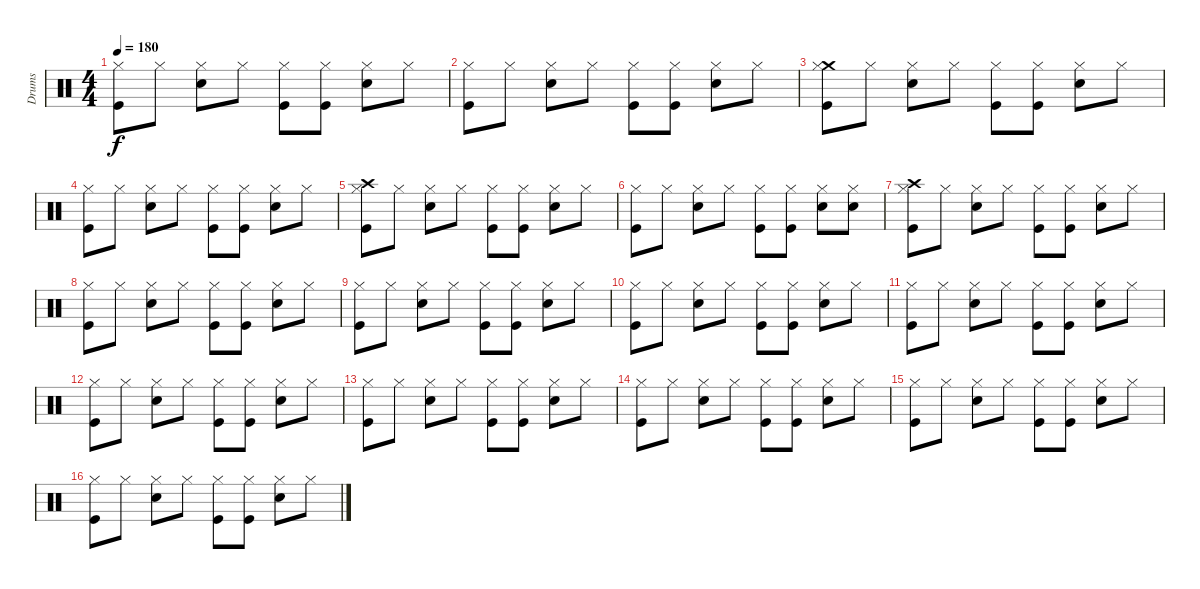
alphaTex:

\track ("Drums" "Drums") {instrument percussion}
\staff {score}
\articulation defaults
\ts (4 4)
\tempo 180
\clef neutral
\ks c
("Hi-Hat (closed)" "Kick (hit)").8{dy f} "Hi-Hat (closed)".8 ("Hi-Hat (closed)" "Electric Snare (hit)").8 "Hi-Hat (closed)".8 ("Kick (hit)" "Hi-Hat (closed)").8 ("Hi-Hat (closed)" "Kick (hit)").8 ("Hi-Hat (closed)" "Electric Snare (hit)").8 "Hi-Hat (closed)".8 |
("Hi-Hat (closed)" "Kick (hit)").8 "Hi-Hat (closed)".8 ("Hi-Hat (closed)" "Electric Snare (hit)").8 "Hi-Hat (closed)".8 ("Kick (hit)" "Hi-Hat (closed)").8 ("Hi-Hat (closed)" "Kick (hit)").8 ("Hi-Hat (closed)" "Electric Snare (hit)").8 "Hi-Hat (closed)".8 |
("Crash medium (hit)" "Hi-Hat (closed)" "Kick (hit)").8 "Hi-Hat (closed)".8 ("Hi-Hat (closed)" "Electric Snare (hit)").8 "Hi-Hat (closed)".8 ("Kick (hit)" "Hi-Hat (closed)").8 ("Hi-Hat (closed)" "Kick (hit)").8 ("Hi-Hat (closed)" "Electric Snare (hit)").8 "Hi-Hat (closed)".8 |
("Hi-Hat (closed)" "Kick (hit)").8 "Hi-Hat (closed)".8 ("Hi-Hat (closed)" "Electric Snare (hit)").8 "Hi-Hat (closed)".8 ("Kick (hit)" "Hi-Hat (closed)").8 ("Hi-Hat (closed)" "Kick (hit)").8 ("Hi-Hat (closed)" "Electric Snare (hit)").8 "Hi-Hat (closed)".8 |
("Crash high (hit)" "Hi-Hat (closed)" "Kick (hit)").8 "Hi-Hat (closed)".8 ("Hi-Hat (closed)" "Electric Snare (hit)").8 "Hi-Hat (closed)".8 ("Kick (hit)" "Hi-Hat (closed)").8 ("Hi-Hat (closed)" "Kick (hit)").8 ("Hi-Hat (closed)" "Electric Snare (hit)").8 "Hi-Hat (closed)".8 |
("Hi-Hat (closed)" "Kick (hit)").8 "Hi-Hat (closed)".8 ("Hi-Hat (closed)" "Electric Snare (hit)").8 "Hi-Hat (closed)".8 ("Kick (hit)" "Hi-Hat (closed)").8 ("Hi-Hat (closed)" "Kick (hit)").8 ("Hi-Hat (closed)" "Electric Snare (hit)").8 ("Electric Snare (hit)" "Hi-Hat (closed)").8 |
("Crash high (hit)" "Hi-Hat (closed)" "Kick (hit)").8 "Hi-Hat (closed)".8 ("Hi-Hat (closed)" "Electric Snare (hit)").8 "Hi-Hat (closed)".8 ("Kick (hit)" "Hi-Hat (closed)").8 ("Hi-Hat (closed)" "Kick (hit)").8 ("Hi-Hat (closed)" "Electric Snare (hit)").8 "Hi-Hat (closed)".8 |
("Hi-Hat (closed)" "Kick (hit)").8 "Hi-Hat (closed)".8 ("Hi-Hat (closed)" "Electric Snare (hit)").8 "Hi-Hat (closed)".8 ("Kick (hit)" "Hi-Hat (closed)").8 ("Hi-Hat (closed)" "Kick (hit)").8 ("Hi-Hat (closed)" "Electric Snare (hit)").8 "Hi-Hat (closed)".8 |
("Hi-Hat (closed)" "Kick (hit)").8 "Hi-Hat (closed)".8 ("Hi-Hat (closed)" "Electric Snare (hit)").8 "Hi-Hat (closed)".8 ("Kick (hit)" "Hi-Hat (closed)").8 ("Hi-Hat (closed)" "Kick (hit)").8 ("Hi-Hat (closed)" "Electric Snare (hit)").8 "Hi-Hat (closed)".8 |
("Hi-Hat (closed)" "Kick (hit)").8 "Hi-Hat (closed)".8 ("Hi-Hat (closed)" "Electric Snare (hit)").8 "Hi-Hat (closed)".8 ("Kick (hit)" "Hi-Hat (closed)").8 ("Hi-Hat (closed)" "Kick (hit)").8 ("Hi-Hat (closed)" "Electric Snare (hit)").8 "Hi-Hat (closed)".8 |
("Hi-Hat (closed)" "Kick (hit)").8 "Hi-Hat (closed)".8 ("Hi-Hat (closed)" "Electric Snare (hit)").8 "Hi-Hat (closed)".8 ("Kick (hit)" "Hi-Hat (closed)").8 ("Hi-Hat (closed)" "Kick (hit)").8 ("Hi-Hat (closed)" "Electric Snare (hit)").8 "Hi-Hat (closed)".8 |
("Hi-Hat (closed)" "Kick (hit)").8 "Hi-Hat (closed)".8 ("Hi-Hat (closed)" "Electric Snare (hit)").8 "Hi-Hat (closed)".8 ("Kick (hit)" "Hi-Hat (closed)").8 ("Hi-Hat (closed)" "Kick (hit)").8 ("Hi-Hat (closed)" "Electric Snare (hit)").8 "Hi-Hat (closed)".8 |
("Hi-Hat (closed)" "Kick (hit)").8 "Hi-Hat (closed)".8 ("Hi-Hat (closed)" "Electric Snare (hit)").8 "Hi-Hat (closed)".8 ("Kick (hit)" "Hi-Hat (closed)").8 ("Hi-Hat (closed)" "Kick (hit)").8 ("Hi-Hat (closed)" "Electric Snare (hit)").8 "Hi-Hat (closed)".8 |
("Hi-Hat (closed)" "Kick (hit)").8 "Hi-Hat (closed)".8 ("Hi-Hat (closed)" "Electric Snare (hit)").8 "Hi-Hat (closed)".8 ("Kick (hit)" "Hi-Hat (closed)").8 ("Hi-Hat (closed)" "Kick (hit)").8 ("Hi-Hat (closed)" "Electric Snare (hit)").8 "Hi-Hat (closed)".8 |
("Hi-Hat (closed)" "Kick (hit)").8 "Hi-Hat (closed)".8 ("Hi-Hat (closed)" "Electric Snare (hit)").8 "Hi-Hat (closed)".8 ("Kick (hit)" "Hi-Hat (closed)").8 ("Hi-Hat (closed)" "Kick (hit)").8 ("Hi-Hat (closed)" "Electric Snare (hit)").8 "Hi-Hat (closed)".8 |
("Hi-Hat (closed)" "Kick (hit)").8 "Hi-Hat (closed)".8 ("Hi-Hat (closed)" "Electric Snare (hit)").8 "Hi-Hat (closed)".8 ("Kick (hit)" "Hi-Hat (closed)").8 ("Hi-Hat (closed)" "Kick (hit)").8 ("Hi-Hat (closed)" "Electric Snare (hit)").8 "Hi-Hat (closed)".8
